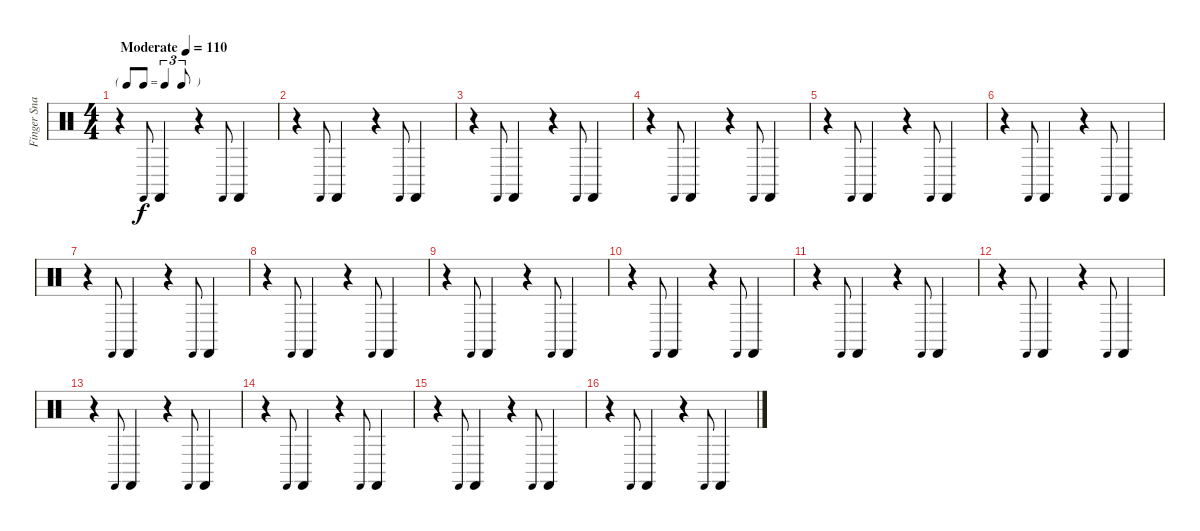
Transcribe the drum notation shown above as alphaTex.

\track ("Finger Snaps" "Finger Sna") {instrument percussion}
\staff {score}
\articulation defaults
\ts (4 4)
\tf triplet8th
\tempo (110 "Moderate")
\clef neutral
\ks c
r.4{dy f} "Castanets (hit)".8{gr onbeat} "Castanets (hit)".4 r.4 "Castanets (hit)".8{gr onbeat} "Castanets (hit)".4 |
r.4 "Castanets (hit)".8{gr onbeat} "Castanets (hit)".4 r.4 "Castanets (hit)".8{gr onbeat} "Castanets (hit)".4 |
r.4 "Castanets (hit)".8{gr onbeat} "Castanets (hit)".4 r.4 "Castanets (hit)".8{gr onbeat} "Castanets (hit)".4 |
r.4 "Castanets (hit)".8{gr onbeat} "Castanets (hit)".4 r.4 "Castanets (hit)".8{gr onbeat} "Castanets (hit)".4 |
r.4 "Castanets (hit)".8{gr onbeat} "Castanets (hit)".4 r.4 "Castanets (hit)".8{gr onbeat} "Castanets (hit)".4 |
r.4 "Castanets (hit)".8{gr onbeat} "Castanets (hit)".4 r.4 "Castanets (hit)".8{gr onbeat} "Castanets (hit)".4 |
r.4 "Castanets (hit)".8{gr onbeat} "Castanets (hit)".4 r.4 "Castanets (hit)".8{gr onbeat} "Castanets (hit)".4 |
r.4 "Castanets (hit)".8{gr onbeat} "Castanets (hit)".4 r.4 "Castanets (hit)".8{gr onbeat} "Castanets (hit)".4 |
r.4 "Castanets (hit)".8{gr onbeat} "Castanets (hit)".4 r.4 "Castanets (hit)".8{gr onbeat} "Castanets (hit)".4 |
r.4 "Castanets (hit)".8{gr onbeat} "Castanets (hit)".4 r.4 "Castanets (hit)".8{gr onbeat} "Castanets (hit)".4 |
r.4 "Castanets (hit)".8{gr onbeat} "Castanets (hit)".4 r.4 "Castanets (hit)".8{gr onbeat} "Castanets (hit)".4 |
r.4 "Castanets (hit)".8{gr onbeat} "Castanets (hit)".4 r.4 "Castanets (hit)".8{gr onbeat} "Castanets (hit)".4 |
r.4 "Castanets (hit)".8{gr onbeat} "Castanets (hit)".4 r.4 "Castanets (hit)".8{gr onbeat} "Castanets (hit)".4 |
r.4 "Castanets (hit)".8{gr onbeat} "Castanets (hit)".4 r.4 "Castanets (hit)".8{gr onbeat} "Castanets (hit)".4 |
r.4 "Castanets (hit)".8{gr onbeat} "Castanets (hit)".4 r.4 "Castanets (hit)".8{gr onbeat} "Castanets (hit)".4 |
r.4 "Castanets (hit)".8{gr onbeat} "Castanets (hit)".4 r.4 "Castanets (hit)".8{gr onbeat} "Castanets (hit)".4
